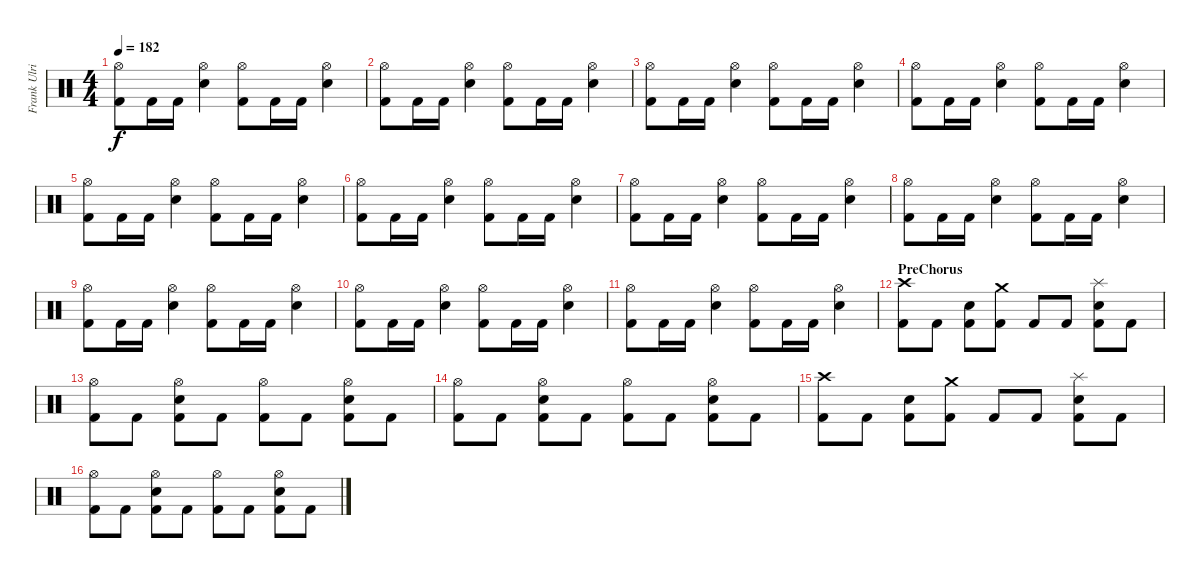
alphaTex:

\track ("Frank Ulrich" "Frank Ulri") {instrument percussion}
\staff {score}
\articulation defaults
\ts (4 4)
\tempo 182
\clef neutral
\ks c
("Hi-Hat (open)" "Kick (hit) 2").8{dy f} "Kick (hit) 2".16 "Kick (hit) 2".16 ("Hi-Hat (open)" "Snare (hit) 2").4 ("Hi-Hat (open)" "Kick (hit) 2").8 "Kick (hit) 2".16 "Kick (hit) 2".16 ("Hi-Hat (open)" "Snare (hit) 2").4 |
("Hi-Hat (open)" "Kick (hit) 2").8 "Kick (hit) 2".16 "Kick (hit) 2".16 ("Hi-Hat (open)" "Snare (hit) 2").4 ("Hi-Hat (open)" "Kick (hit) 2").8 "Kick (hit) 2".16 "Kick (hit) 2".16 ("Hi-Hat (open)" "Snare (hit) 2").4 |
("Hi-Hat (open)" "Kick (hit) 2").8 "Kick (hit) 2".16 "Kick (hit) 2".16 ("Hi-Hat (open)" "Snare (hit) 2").4 ("Hi-Hat (open)" "Kick (hit) 2").8 "Kick (hit) 2".16 "Kick (hit) 2".16 ("Hi-Hat (open)" "Snare (hit) 2").4 |
("Hi-Hat (open)" "Kick (hit) 2").8 "Kick (hit) 2".16 "Kick (hit) 2".16 ("Hi-Hat (open)" "Snare (hit) 2").4 ("Hi-Hat (open)" "Kick (hit) 2").8 "Kick (hit) 2".16 "Kick (hit) 2".16 ("Hi-Hat (open)" "Snare (hit) 2").4 |
("Hi-Hat (open)" "Kick (hit) 2").8 "Kick (hit) 2".16 "Kick (hit) 2".16 ("Hi-Hat (open)" "Snare (hit) 2").4 ("Hi-Hat (open)" "Kick (hit) 2").8 "Kick (hit) 2".16 "Kick (hit) 2".16 ("Hi-Hat (open)" "Snare (hit) 2").4 |
("Hi-Hat (open)" "Kick (hit) 2").8 "Kick (hit) 2".16 "Kick (hit) 2".16 ("Hi-Hat (open)" "Snare (hit) 2").4 ("Hi-Hat (open)" "Kick (hit) 2").8 "Kick (hit) 2".16 "Kick (hit) 2".16 ("Hi-Hat (open)" "Snare (hit) 2").4 |
("Hi-Hat (open)" "Kick (hit) 2").8 "Kick (hit) 2".16 "Kick (hit) 2".16 ("Hi-Hat (open)" "Snare (hit) 2").4 ("Hi-Hat (open)" "Kick (hit) 2").8 "Kick (hit) 2".16 "Kick (hit) 2".16 ("Hi-Hat (open)" "Snare (hit) 2").4 |
("Hi-Hat (open)" "Kick (hit) 2").8 "Kick (hit) 2".16 "Kick (hit) 2".16 ("Hi-Hat (open)" "Snare (hit) 2").4 ("Hi-Hat (open)" "Kick (hit) 2").8 "Kick (hit) 2".16 "Kick (hit) 2".16 ("Hi-Hat (open)" "Snare (hit) 2").4 |
("Hi-Hat (open)" "Kick (hit) 2").8 "Kick (hit) 2".16 "Kick (hit) 2".16 ("Hi-Hat (open)" "Snare (hit) 2").4 ("Hi-Hat (open)" "Kick (hit) 2").8 "Kick (hit) 2".16 "Kick (hit) 2".16 ("Hi-Hat (open)" "Snare (hit) 2").4 |
("Hi-Hat (open)" "Kick (hit) 2").8 "Kick (hit) 2".16 "Kick (hit) 2".16 ("Hi-Hat (open)" "Snare (hit) 2").4 ("Hi-Hat (open)" "Kick (hit) 2").8 "Kick (hit) 2".16 "Kick (hit) 2".16 ("Hi-Hat (open)" "Snare (hit) 2").4 |
("Hi-Hat (open)" "Kick (hit) 2").8 "Kick (hit) 2".16 "Kick (hit) 2".16 ("Hi-Hat (open)" "Snare (hit) 2").4 ("Hi-Hat (open)" "Kick (hit) 2").8 "Kick (hit) 2".16 "Kick (hit) 2".16 ("Hi-Hat (open)" "Snare (hit) 2").4 |
\section ("" "PreChorus")
("Crash high (hit)" "Kick (hit) 2").8 "Kick (hit) 2".8 ("Snare (hit) 2" "Kick (hit) 2").8 ("Crash medium (hit)" "Kick (hit) 2").8 "Kick (hit) 2".8 "Kick (hit) 2".8 ("Splash (hit)" "Snare (hit) 2" "Kick (hit) 2").8 "Kick (hit) 2".8 |
("Hi-Hat (open)" "Kick (hit) 2").8 "Kick (hit) 2".8 ("Hi-Hat (open)" "Snare (hit) 2" "Kick (hit) 2").8 "Kick (hit) 2".8 ("Hi-Hat (open)" "Kick (hit) 2").8 "Kick (hit) 2".8 ("Hi-Hat (open)" "Snare (hit) 2" "Kick (hit) 2").8 "Kick (hit) 2".8 |
("Hi-Hat (open)" "Kick (hit) 2").8 "Kick (hit) 2".8 ("Hi-Hat (open)" "Snare (hit) 2" "Kick (hit) 2").8 "Kick (hit) 2".8 ("Hi-Hat (open)" "Kick (hit) 2").8 "Kick (hit) 2".8 ("Hi-Hat (open)" "Snare (hit) 2" "Kick (hit) 2").8 "Kick (hit) 2".8 |
("Crash high (hit)" "Kick (hit) 2").8 "Kick (hit) 2".8 ("Snare (hit) 2" "Kick (hit) 2").8 ("Crash medium (hit)" "Kick (hit) 2").8 "Kick (hit) 2".8 "Kick (hit) 2".8 ("Splash (hit)" "Snare (hit) 2" "Kick (hit) 2").8 "Kick (hit) 2".8 |
("Hi-Hat (open)" "Kick (hit) 2").8 "Kick (hit) 2".8 ("Hi-Hat (open)" "Snare (hit) 2" "Kick (hit) 2").8 "Kick (hit) 2".8 ("Hi-Hat (open)" "Kick (hit) 2").8 "Kick (hit) 2".8 ("Hi-Hat (open)" "Snare (hit) 2" "Kick (hit) 2").8 "Kick (hit) 2".8
